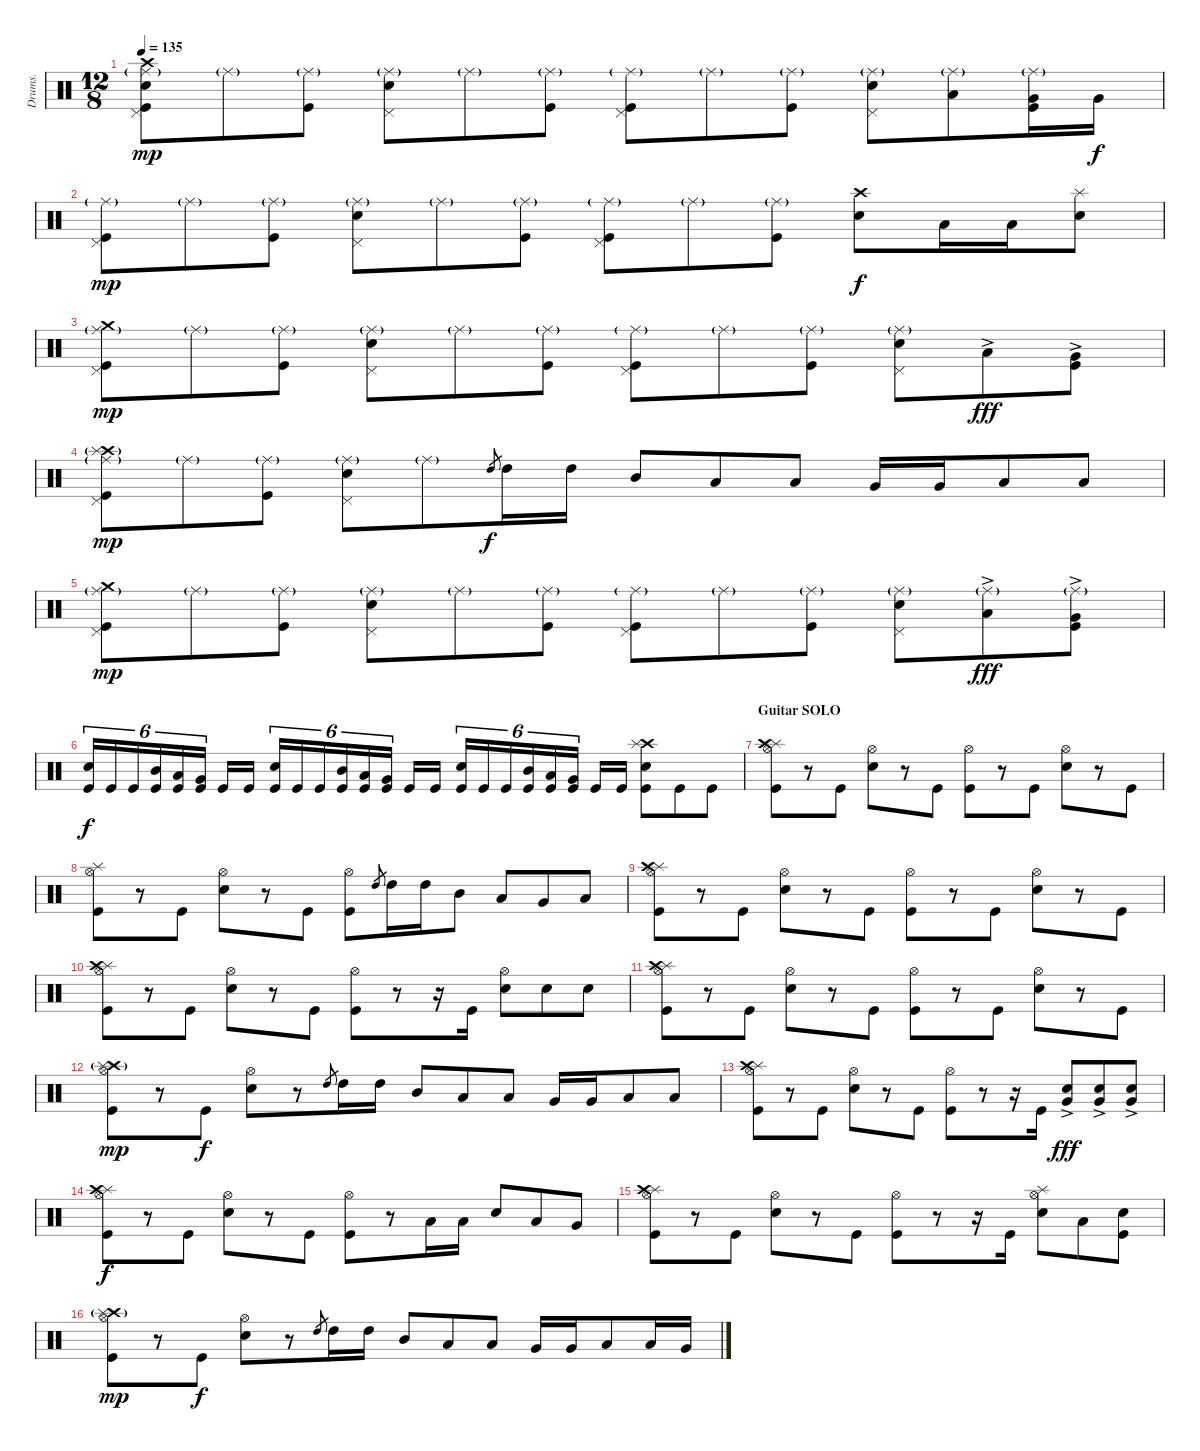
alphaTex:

\track ("Drums." "Drums.") {instrument percussion}
\staff {score}
\articulation defaults
\ts (12 8)
\tempo 135
\clef neutral
\ks c
("Ride (middle)"{g} "Pedal Hi-Hat (hit)" "Crash high (hit)" "Snare (hit) 2" "Kick (hit)").8{dy mp} "Ride (middle)"{g}.8 ("Ride (middle)"{g} "Kick (hit)").8 ("Ride (middle)"{g} "Pedal Hi-Hat (hit)" "Snare (hit) 2").8 "Ride (middle)"{g}.8 ("Ride (middle)"{g} "Kick (hit)").8 ("Ride (middle)"{g} "Pedal Hi-Hat (hit)" "Kick (hit)").8 "Ride (middle)"{g}.8 ("Ride (middle)"{g} "Kick (hit)").8 ("Ride (middle)"{g} "Pedal Hi-Hat (hit)" "Snare (hit) 2").8 ("Ride (middle)"{g} "Low Tom (hit)").8 ("Ride (middle)"{g} "Very Low Tom (hit)" "Kick (hit)").16 "Very Low Tom (hit)".16{dy f} |
("Ride (middle)"{g} "Pedal Hi-Hat (hit)" "Kick (hit)").8{dy mp} "Ride (middle)"{g}.8 ("Ride (middle)"{g} "Kick (hit)").8 ("Ride (middle)"{g} "Pedal Hi-Hat (hit)" "Snare (hit) 2").8 "Ride (middle)"{g}.8 ("Ride (middle)"{g} "Kick (hit)").8 ("Ride (middle)"{g} "Pedal Hi-Hat (hit)" "Kick (hit)").8 "Ride (middle)"{g}.8 ("Ride (middle)"{g} "Kick (hit)").8 ("Crash high (hit)" "Snare (hit) 2").8{dy f} "Low Tom (hit)".16 "Low Tom (hit)".16 ("Splash (hit)" "Snare (hit) 2").8 |
("Ride (middle)"{g} "Pedal Hi-Hat (hit)" "Crash medium (hit)" "Kick (hit)").8{dy mp} "Ride (middle)"{g}.8 ("Ride (middle)"{g} "Kick (hit)").8 ("Ride (middle)"{g} "Pedal Hi-Hat (hit)" "Snare (hit) 2").8 "Ride (middle)"{g}.8 ("Ride (middle)"{g} "Kick (hit)").8 ("Ride (middle)"{g} "Pedal Hi-Hat (hit)" "Kick (hit)").8 "Ride (middle)"{g}.8 ("Ride (middle)"{g} "Kick (hit)").8 ("Ride (middle)"{g} "Pedal Hi-Hat (hit)" "Snare (hit) 2").8 "Low Tom (hit)"{ac}.8{dy fff} ("Very Low Tom (hit)"{ac} "Kick (hit)").8 |
("Ride (middle)"{g} "Crash high (hit)"{g} "Splash (hit)" "Pedal Hi-Hat (hit)" "Kick (hit)").8{dy mp} "Ride (middle)"{g}.8 ("Ride (middle)"{g} "Kick (hit)").8 ("Ride (middle)"{g} "Pedal Hi-Hat (hit)" "Snare (hit) 2").8 "Ride (middle)"{g}.8 "High Tom (hit)".8{gr dy f} "High Tom (hit)".16 "High Tom (hit)".16 "Mid Tom (hit)".8 "Low Tom (hit)".8 "Low Tom (hit)".8 "Very Low Tom (hit)".16 "Very Low Tom (hit)".16 "Low Floor Tom (hit)".8 "Low Floor Tom (hit)".8 |
("Ride (middle)"{g} "Pedal Hi-Hat (hit)" "Crash medium (hit)" "Kick (hit)").8{dy mp} "Ride (middle)"{g}.8 ("Ride (middle)"{g} "Kick (hit)").8 ("Ride (middle)"{g} "Pedal Hi-Hat (hit)" "Snare (hit) 2").8 "Ride (middle)"{g}.8 ("Ride (middle)"{g} "Kick (hit)").8 ("Ride (middle)"{g} "Pedal Hi-Hat (hit)" "Kick (hit)").8 "Ride (middle)"{g}.8 ("Ride (middle)"{g} "Kick (hit)").8 ("Ride (middle)"{g} "Pedal Hi-Hat (hit)" "Snare (hit) 2").8 ("Ride (middle)"{g} "Low Tom (hit)"{ac}).8{dy fff} ("Ride (middle)"{g} "Very Low Tom (hit)"{ac} "Kick (hit)").8 |
("Snare (hit) 2" "Kick (hit)").16{tu (6 4) dy f} "Kick (hit)".16{tu (6 4)} "Kick (hit)".16{tu (6 4)} ("Mid Tom (hit)" "Kick (hit)").16{tu (6 4)} ("Low Tom (hit)" "Kick (hit)").16{tu (6 4)} ("Very Low Tom (hit)" "Kick (hit)").16{tu (6 4)} "Kick (hit)".16 "Kick (hit)".16 ("Snare (hit) 2" "Kick (hit)").16{tu (6 4)} "Kick (hit)".16{tu (6 4)} "Kick (hit)".16{tu (6 4)} ("Mid Tom (hit)" "Kick (hit)").16{tu (6 4)} ("Low Tom (hit)" "Kick (hit)").16{tu (6 4)} ("Very Low Tom (hit)" "Kick (hit)").16{tu (6 4)} "Kick (hit)".16 "Kick (hit)".16 ("Snare (hit) 2" "Kick (hit)").16{tu (6 4)} "Kick (hit)".16{tu (6 4)} "Kick (hit)".16{tu (6 4)} ("Mid Tom (hit)" "Kick (hit)").16{tu (6 4)} ("Low Tom (hit)" "Kick (hit)").16{tu (6 4)} ("Very Low Tom (hit)" "Kick (hit)").16{tu (6 4)} "Kick (hit)".16 "Kick (hit)".16 ("Crash high (hit)" "Splash (hit)" "Snare (hit) 2" "Kick (hit)").8 "Kick (hit)".8 "Kick (hit)".8 |
\section ("" "Guitar SOLO")
("Hi-Hat (open)" "Splash (hit)" "Crash high (hit)" "Kick (hit)").8 r.8 "Kick (hit)".8 ("Hi-Hat (open)" "Snare (hit) 2").8 r.8 "Kick (hit)".8 ("Hi-Hat (open)" "Kick (hit)").8 r.8 "Kick (hit)".8 ("Hi-Hat (open)" "Snare (hit) 2").8 r.8 "Kick (hit)".8 |
("Hi-Hat (open)" "Splash (hit)" "Kick (hit)").8 r.8 "Kick (hit)".8 ("Hi-Hat (open)" "Snare (hit) 2").8 r.8 "Kick (hit)".8 ("Hi-Hat (open)" "Kick (hit)").8 "High Tom (hit)".8{gr} "High Tom (hit)".16 "High Tom (hit)".16 "Mid Tom (hit)".8 "Low Tom (hit)".8 "Very Low Tom (hit)".8 "Low Floor Tom (hit)".8 |
("Hi-Hat (open)" "Splash (hit)" "Crash high (hit)" "Kick (hit)").8 r.8 "Kick (hit)".8 ("Hi-Hat (open)" "Snare (hit) 2").8 r.8 "Kick (hit)".8 ("Hi-Hat (open)" "Kick (hit)").8 r.8 "Kick (hit)".8 ("Hi-Hat (open)" "Snare (hit) 2").8 r.8 "Kick (hit)".8 |
("Hi-Hat (open)" "Splash (hit)" "Crash high (hit)" "Kick (hit)").8 r.8 "Kick (hit)".8 ("Hi-Hat (open)" "Snare (hit) 2").8 r.8 "Kick (hit)".8 ("Hi-Hat (open)" "Kick (hit)").8 r.8 r.16 "Kick (hit)".16 ("Hi-Hat (open)" "Snare (hit) 2").8 "Snare (hit) 2".8 "Snare (hit) 2".8 |
("Hi-Hat (open)" "Splash (hit)" "Crash high (hit)" "Kick (hit)").8 r.8 "Kick (hit)".8 ("Hi-Hat (open)" "Snare (hit) 2").8 r.8 "Kick (hit)".8 ("Hi-Hat (open)" "Kick (hit)").8 r.8 "Kick (hit)".8 ("Hi-Hat (open)" "Snare (hit) 2").8 r.8 "Kick (hit)".8 |
("Hi-Hat (open)" "Crash high (hit)"{g} "Splash (hit)" "Kick (hit)").8{dy mp} r.8 "Kick (hit)".8{dy f} ("Hi-Hat (open)" "Snare (hit) 2").8 r.8 "High Tom (hit)".8{gr} "High Tom (hit)".16 "High Tom (hit)".16 "Mid Tom (hit)".8 "Low Tom (hit)".8 "Low Tom (hit)".8 "Very Low Tom (hit)".16 "Very Low Tom (hit)".16 "Low Floor Tom (hit)".8 "Low Floor Tom (hit)".8 |
("Hi-Hat (open)" "Splash (hit)" "Crash high (hit)" "Kick (hit)").8 r.8 "Kick (hit)".8 ("Hi-Hat (open)" "Snare (hit) 2").8 r.8 "Kick (hit)".8 ("Hi-Hat (open)" "Kick (hit)").8 r.8 r.16 "Kick (hit)".16 ("Very Low Tom (hit)"{ac} "Snare (hit) 2").8{dy fff} ("Very Low Tom (hit)"{ac} "Snare (hit) 2").8 ("Very Low Tom (hit)"{ac} "Snare (hit) 2").8 |
("Hi-Hat (open)" "Splash (hit)" "Crash high (hit)" "Kick (hit)").8{dy f} r.8 "Kick (hit)".8 ("Hi-Hat (open)" "Snare (hit) 2").8 r.8 "Kick (hit)".8 ("Hi-Hat (open)" "Kick (hit)").8 r.8 "Low Tom (hit)".16 "Low Tom (hit)".16 "Snare (hit) 2".8 "Low Tom (hit)".8 "Very Low Tom (hit)".8 |
("Hi-Hat (open)" "Splash (hit)" "Crash high (hit)" "Kick (hit)").8 r.8 "Kick (hit)".8 ("Hi-Hat (open)" "Snare (hit) 2").8 r.8 "Kick (hit)".8 ("Hi-Hat (open)" "Kick (hit)").8 r.8 r.16 "Kick (hit)".16 ("Hi-Hat (open)" "Splash (hit)" "Snare (hit) 2").8 "Low Tom (hit)".8 ("Snare (hit) 2" "Kick (hit)").8 |
("Hi-Hat (open)" "Crash high (hit)"{g} "Splash (hit)" "Kick (hit)").8{dy mp} r.8 "Kick (hit)".8{dy f} ("Hi-Hat (open)" "Snare (hit) 2").8 r.8 "High Tom (hit)".8{gr} "High Tom (hit)".16 "High Tom (hit)".16 "Mid Tom (hit)".8 "Low Tom (hit)".8 "Low Tom (hit)".8 "Very Low Tom (hit)".16 "Very Low Tom (hit)".16 "Low Floor Tom (hit)".8 "Low Floor Tom (hit)".16 "Very Low Tom (hit)".16
